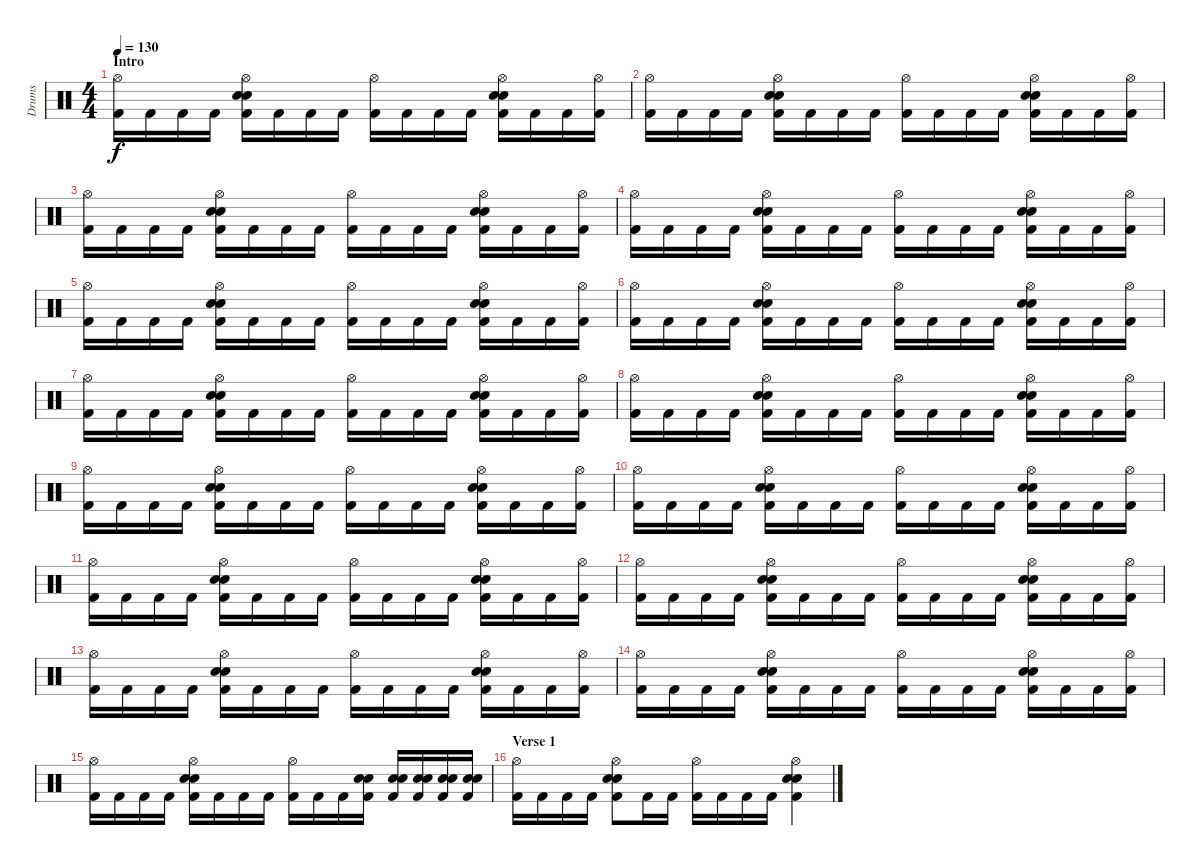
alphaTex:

\track ("Drums" "Drums") {instrument percussion}
\staff {score}
\articulation defaults
\ts (4 4)
\section ("" "Intro")
\tempo 130
\clef neutral
\ks c
("Hi-Hat (open)" "Kick (hit) 2").16{dy f} "Kick (hit) 2".16 "Kick (hit) 2".16 "Kick (hit) 2".16 ("Hi-Hat (open)" "Snare (hit) 2" "Electric Snare (hit)" "Kick (hit) 2").16 "Kick (hit) 2".16 "Kick (hit) 2".16 "Kick (hit) 2".16 ("Hi-Hat (open)" "Kick (hit) 2").16 "Kick (hit) 2".16 "Kick (hit) 2".16 "Kick (hit) 2".16 ("Hi-Hat (open)" "Snare (hit) 2" "Electric Snare (hit)" "Kick (hit) 2").16 "Kick (hit) 2".16 "Kick (hit) 2".16 ("Hi-Hat (open)" "Kick (hit) 2").16 |
("Hi-Hat (open)" "Kick (hit) 2").16 "Kick (hit) 2".16 "Kick (hit) 2".16 "Kick (hit) 2".16 ("Hi-Hat (open)" "Snare (hit) 2" "Electric Snare (hit)" "Kick (hit) 2").16 "Kick (hit) 2".16 "Kick (hit) 2".16 "Kick (hit) 2".16 ("Hi-Hat (open)" "Kick (hit) 2").16 "Kick (hit) 2".16 "Kick (hit) 2".16 "Kick (hit) 2".16 ("Hi-Hat (open)" "Snare (hit) 2" "Electric Snare (hit)" "Kick (hit) 2").16 "Kick (hit) 2".16 "Kick (hit) 2".16 ("Hi-Hat (open)" "Kick (hit) 2").16 |
("Hi-Hat (open)" "Kick (hit) 2").16 "Kick (hit) 2".16 "Kick (hit) 2".16 "Kick (hit) 2".16 ("Hi-Hat (open)" "Snare (hit) 2" "Electric Snare (hit)" "Kick (hit) 2").16 "Kick (hit) 2".16 "Kick (hit) 2".16 "Kick (hit) 2".16 ("Hi-Hat (open)" "Kick (hit) 2").16 "Kick (hit) 2".16 "Kick (hit) 2".16 "Kick (hit) 2".16 ("Hi-Hat (open)" "Snare (hit) 2" "Electric Snare (hit)" "Kick (hit) 2").16 "Kick (hit) 2".16 "Kick (hit) 2".16 ("Hi-Hat (open)" "Kick (hit) 2").16 |
("Hi-Hat (open)" "Kick (hit) 2").16 "Kick (hit) 2".16 "Kick (hit) 2".16 "Kick (hit) 2".16 ("Hi-Hat (open)" "Snare (hit) 2" "Electric Snare (hit)" "Kick (hit) 2").16 "Kick (hit) 2".16 "Kick (hit) 2".16 "Kick (hit) 2".16 ("Hi-Hat (open)" "Kick (hit) 2").16 "Kick (hit) 2".16 "Kick (hit) 2".16 "Kick (hit) 2".16 ("Hi-Hat (open)" "Snare (hit) 2" "Electric Snare (hit)" "Kick (hit) 2").16 "Kick (hit) 2".16 "Kick (hit) 2".16 ("Hi-Hat (open)" "Kick (hit) 2").16 |
("Hi-Hat (open)" "Kick (hit) 2").16 "Kick (hit) 2".16 "Kick (hit) 2".16 "Kick (hit) 2".16 ("Hi-Hat (open)" "Snare (hit) 2" "Electric Snare (hit)" "Kick (hit) 2").16 "Kick (hit) 2".16 "Kick (hit) 2".16 "Kick (hit) 2".16 ("Hi-Hat (open)" "Kick (hit) 2").16 "Kick (hit) 2".16 "Kick (hit) 2".16 "Kick (hit) 2".16 ("Hi-Hat (open)" "Snare (hit) 2" "Electric Snare (hit)" "Kick (hit) 2").16 "Kick (hit) 2".16 "Kick (hit) 2".16 ("Hi-Hat (open)" "Kick (hit) 2").16 |
("Hi-Hat (open)" "Kick (hit) 2").16 "Kick (hit) 2".16 "Kick (hit) 2".16 "Kick (hit) 2".16 ("Hi-Hat (open)" "Snare (hit) 2" "Electric Snare (hit)" "Kick (hit) 2").16 "Kick (hit) 2".16 "Kick (hit) 2".16 "Kick (hit) 2".16 ("Hi-Hat (open)" "Kick (hit) 2").16 "Kick (hit) 2".16 "Kick (hit) 2".16 "Kick (hit) 2".16 ("Hi-Hat (open)" "Snare (hit) 2" "Electric Snare (hit)" "Kick (hit) 2").16 "Kick (hit) 2".16 "Kick (hit) 2".16 ("Hi-Hat (open)" "Kick (hit) 2").16 |
("Hi-Hat (open)" "Kick (hit) 2").16 "Kick (hit) 2".16 "Kick (hit) 2".16 "Kick (hit) 2".16 ("Hi-Hat (open)" "Snare (hit) 2" "Electric Snare (hit)" "Kick (hit) 2").16 "Kick (hit) 2".16 "Kick (hit) 2".16 "Kick (hit) 2".16 ("Hi-Hat (open)" "Kick (hit) 2").16 "Kick (hit) 2".16 "Kick (hit) 2".16 "Kick (hit) 2".16 ("Hi-Hat (open)" "Snare (hit) 2" "Electric Snare (hit)" "Kick (hit) 2").16 "Kick (hit) 2".16 "Kick (hit) 2".16 ("Hi-Hat (open)" "Kick (hit) 2").16 |
("Hi-Hat (open)" "Kick (hit) 2").16 "Kick (hit) 2".16 "Kick (hit) 2".16 "Kick (hit) 2".16 ("Hi-Hat (open)" "Snare (hit) 2" "Electric Snare (hit)" "Kick (hit) 2").16 "Kick (hit) 2".16 "Kick (hit) 2".16 "Kick (hit) 2".16 ("Hi-Hat (open)" "Kick (hit) 2").16 "Kick (hit) 2".16 "Kick (hit) 2".16 "Kick (hit) 2".16 ("Hi-Hat (open)" "Snare (hit) 2" "Electric Snare (hit)" "Kick (hit) 2").16 "Kick (hit) 2".16 "Kick (hit) 2".16 ("Hi-Hat (open)" "Kick (hit) 2").16 |
("Hi-Hat (open)" "Kick (hit) 2").16 "Kick (hit) 2".16 "Kick (hit) 2".16 "Kick (hit) 2".16 ("Hi-Hat (open)" "Snare (hit) 2" "Electric Snare (hit)" "Kick (hit) 2").16 "Kick (hit) 2".16 "Kick (hit) 2".16 "Kick (hit) 2".16 ("Hi-Hat (open)" "Kick (hit) 2").16 "Kick (hit) 2".16 "Kick (hit) 2".16 "Kick (hit) 2".16 ("Hi-Hat (open)" "Snare (hit) 2" "Electric Snare (hit)" "Kick (hit) 2").16 "Kick (hit) 2".16 "Kick (hit) 2".16 ("Hi-Hat (open)" "Kick (hit) 2").16 |
("Hi-Hat (open)" "Kick (hit) 2").16 "Kick (hit) 2".16 "Kick (hit) 2".16 "Kick (hit) 2".16 ("Hi-Hat (open)" "Snare (hit) 2" "Electric Snare (hit)" "Kick (hit) 2").16 "Kick (hit) 2".16 "Kick (hit) 2".16 "Kick (hit) 2".16 ("Hi-Hat (open)" "Kick (hit) 2").16 "Kick (hit) 2".16 "Kick (hit) 2".16 "Kick (hit) 2".16 ("Hi-Hat (open)" "Snare (hit) 2" "Electric Snare (hit)" "Kick (hit) 2").16 "Kick (hit) 2".16 "Kick (hit) 2".16 ("Hi-Hat (open)" "Kick (hit) 2").16 |
("Hi-Hat (open)" "Kick (hit) 2").16 "Kick (hit) 2".16 "Kick (hit) 2".16 "Kick (hit) 2".16 ("Hi-Hat (open)" "Snare (hit) 2" "Electric Snare (hit)" "Kick (hit) 2").16 "Kick (hit) 2".16 "Kick (hit) 2".16 "Kick (hit) 2".16 ("Hi-Hat (open)" "Kick (hit) 2").16 "Kick (hit) 2".16 "Kick (hit) 2".16 "Kick (hit) 2".16 ("Hi-Hat (open)" "Snare (hit) 2" "Electric Snare (hit)" "Kick (hit) 2").16 "Kick (hit) 2".16 "Kick (hit) 2".16 ("Hi-Hat (open)" "Kick (hit) 2").16 |
("Hi-Hat (open)" "Kick (hit) 2").16 "Kick (hit) 2".16 "Kick (hit) 2".16 "Kick (hit) 2".16 ("Hi-Hat (open)" "Snare (hit) 2" "Electric Snare (hit)" "Kick (hit) 2").16 "Kick (hit) 2".16 "Kick (hit) 2".16 "Kick (hit) 2".16 ("Hi-Hat (open)" "Kick (hit) 2").16 "Kick (hit) 2".16 "Kick (hit) 2".16 "Kick (hit) 2".16 ("Hi-Hat (open)" "Snare (hit) 2" "Electric Snare (hit)" "Kick (hit) 2").16 "Kick (hit) 2".16 "Kick (hit) 2".16 ("Hi-Hat (open)" "Kick (hit) 2").16 |
("Hi-Hat (open)" "Kick (hit) 2").16 "Kick (hit) 2".16 "Kick (hit) 2".16 "Kick (hit) 2".16 ("Hi-Hat (open)" "Snare (hit) 2" "Electric Snare (hit)" "Kick (hit) 2").16 "Kick (hit) 2".16 "Kick (hit) 2".16 "Kick (hit) 2".16 ("Hi-Hat (open)" "Kick (hit) 2").16 "Kick (hit) 2".16 "Kick (hit) 2".16 "Kick (hit) 2".16 ("Hi-Hat (open)" "Snare (hit) 2" "Electric Snare (hit)" "Kick (hit) 2").16 "Kick (hit) 2".16 "Kick (hit) 2".16 ("Hi-Hat (open)" "Kick (hit) 2").16 |
("Hi-Hat (open)" "Kick (hit) 2").16 "Kick (hit) 2".16 "Kick (hit) 2".16 "Kick (hit) 2".16 ("Hi-Hat (open)" "Snare (hit) 2" "Electric Snare (hit)" "Kick (hit) 2").16 "Kick (hit) 2".16 "Kick (hit) 2".16 "Kick (hit) 2".16 ("Hi-Hat (open)" "Kick (hit) 2").16 "Kick (hit) 2".16 "Kick (hit) 2".16 "Kick (hit) 2".16 ("Hi-Hat (open)" "Snare (hit) 2" "Electric Snare (hit)" "Kick (hit) 2").16 "Kick (hit) 2".16 "Kick (hit) 2".16 ("Hi-Hat (open)" "Kick (hit) 2").16 |
("Hi-Hat (open)" "Kick (hit) 2").16 "Kick (hit) 2".16 "Kick (hit) 2".16 "Kick (hit) 2".16 ("Hi-Hat (open)" "Snare (hit) 2" "Electric Snare (hit)" "Kick (hit) 2").16 "Kick (hit) 2".16 "Kick (hit) 2".16 "Kick (hit) 2".16 ("Hi-Hat (open)" "Kick (hit) 2").16 "Kick (hit) 2".16 "Kick (hit) 2".16 ("Snare (hit) 2" "Electric Snare (hit)" "Kick (hit) 2").16 ("Snare (hit) 2" "Electric Snare (hit)" "Kick (hit) 2").16 ("Snare (hit) 2" "Electric Snare (hit)" "Kick (hit) 2").16 ("Snare (hit) 2" "Electric Snare (hit)" "Kick (hit) 2").16 ("Snare (hit) 2" "Electric Snare (hit)" "Kick (hit) 2").16 |
\section ("" "Verse 1")
("Hi-Hat (open)" "Kick (hit) 2").16 "Kick (hit) 2".16 "Kick (hit) 2".16 "Kick (hit) 2".16 ("Hi-Hat (open)" "Snare (hit) 2" "Electric Snare (hit)" "Kick (hit) 2").8 "Kick (hit) 2".16 "Kick (hit) 2".16 ("Hi-Hat (open)" "Kick (hit) 2").16 "Kick (hit) 2".16 "Kick (hit) 2".16 "Kick (hit) 2".16 ("Hi-Hat (open)" "Snare (hit) 2" "Electric Snare (hit)" "Kick (hit) 2").4
